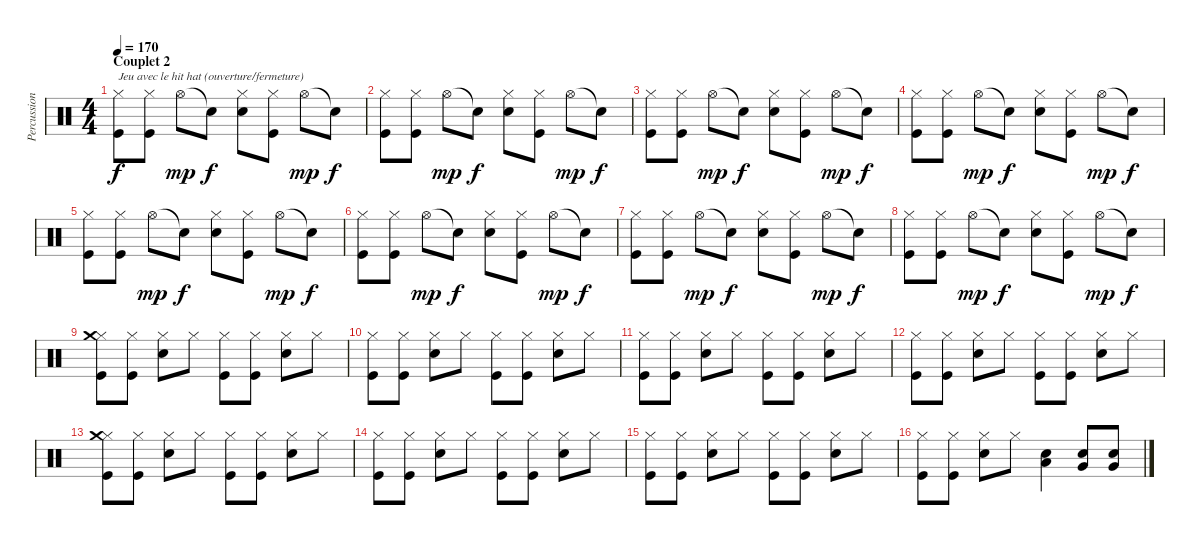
\track ("Percussions" "Percussion") {instrument percussion}
\staff {score}
\articulation defaults
\ts (4 4)
\section ("" "Couplet 2")
\tempo 170
\clef neutral
\ks c
("Hi-Hat (closed)" "Kick (hit)").8{txt "Jeu avec le hit hat (ouverture/fermeture)" dy f} ("Hi-Hat (closed)" "Kick (hit)").8 "Hi-Hat (open)".8{dy mp} "Snare (hit)"{t}.8{dy f} ("Hi-Hat (closed)" "Electric Snare (hit)").8 ("Hi-Hat (closed)" "Kick (hit)").8 "Hi-Hat (open)".8{dy mp} "Snare (hit)"{t}.8{dy f} |
("Hi-Hat (closed)" "Kick (hit)").8 ("Hi-Hat (closed)" "Kick (hit)").8 "Hi-Hat (open)".8{dy mp} "Snare (hit)"{t}.8{dy f} ("Hi-Hat (closed)" "Electric Snare (hit)").8 ("Hi-Hat (closed)" "Kick (hit)").8 "Hi-Hat (open)".8{dy mp} "Snare (hit)"{t}.8{dy f} |
("Hi-Hat (closed)" "Kick (hit)").8 ("Hi-Hat (closed)" "Kick (hit)").8 "Hi-Hat (open)".8{dy mp} "Snare (hit)"{t}.8{dy f} ("Hi-Hat (closed)" "Electric Snare (hit)").8 ("Hi-Hat (closed)" "Kick (hit)").8 "Hi-Hat (open)".8{dy mp} "Snare (hit)"{t}.8{dy f} |
("Hi-Hat (closed)" "Kick (hit)").8 ("Hi-Hat (closed)" "Kick (hit)").8 "Hi-Hat (open)".8{dy mp} "Snare (hit)"{t}.8{dy f} ("Hi-Hat (closed)" "Electric Snare (hit)").8 ("Hi-Hat (closed)" "Kick (hit)").8 "Hi-Hat (open)".8{dy mp} "Snare (hit)"{t}.8{dy f} |
("Hi-Hat (closed)" "Kick (hit)").8 ("Hi-Hat (closed)" "Kick (hit)").8 "Hi-Hat (open)".8{dy mp} "Snare (hit)"{t}.8{dy f} ("Hi-Hat (closed)" "Electric Snare (hit)").8 ("Hi-Hat (closed)" "Kick (hit)").8 "Hi-Hat (open)".8{dy mp} "Snare (hit)"{t}.8{dy f} |
("Hi-Hat (closed)" "Kick (hit)").8 ("Hi-Hat (closed)" "Kick (hit)").8 "Hi-Hat (open)".8{dy mp} "Snare (hit)"{t}.8{dy f} ("Hi-Hat (closed)" "Electric Snare (hit)").8 ("Hi-Hat (closed)" "Kick (hit)").8 "Hi-Hat (open)".8{dy mp} "Snare (hit)"{t}.8{dy f} |
("Hi-Hat (closed)" "Kick (hit)").8 ("Hi-Hat (closed)" "Kick (hit)").8 "Hi-Hat (open)".8{dy mp} "Snare (hit)"{t}.8{dy f} ("Hi-Hat (closed)" "Electric Snare (hit)").8 ("Hi-Hat (closed)" "Kick (hit)").8 "Hi-Hat (open)".8{dy mp} "Snare (hit)"{t}.8{dy f} |
("Hi-Hat (closed)" "Kick (hit)").8 ("Hi-Hat (closed)" "Kick (hit)").8 "Hi-Hat (open)".8{dy mp} "Snare (hit)"{t}.8{dy f} ("Hi-Hat (closed)" "Electric Snare (hit)").8 ("Hi-Hat (closed)" "Kick (hit)").8 "Hi-Hat (open)".8{dy mp} "Snare (hit)"{t}.8{dy f} |
("Hi-Hat (closed)" "Crash medium (hit)" "Kick (hit)").8 ("Hi-Hat (closed)" "Kick (hit)").8 ("Hi-Hat (closed)" "Electric Snare (hit)").8 "Hi-Hat (closed)".8 ("Hi-Hat (closed)" "Kick (hit)").8 ("Hi-Hat (closed)" "Kick (hit)").8 ("Hi-Hat (closed)" "Electric Snare (hit)").8 "Hi-Hat (closed)".8 |
("Hi-Hat (closed)" "Kick (hit)").8 ("Hi-Hat (closed)" "Kick (hit)").8 ("Hi-Hat (closed)" "Electric Snare (hit)").8 "Hi-Hat (closed)".8 ("Hi-Hat (closed)" "Kick (hit)").8 ("Hi-Hat (closed)" "Kick (hit)").8 ("Hi-Hat (closed)" "Electric Snare (hit)").8 "Hi-Hat (closed)".8 |
("Hi-Hat (closed)" "Kick (hit)").8 ("Hi-Hat (closed)" "Kick (hit)").8 ("Hi-Hat (closed)" "Electric Snare (hit)").8 "Hi-Hat (closed)".8 ("Hi-Hat (closed)" "Kick (hit)").8 ("Hi-Hat (closed)" "Kick (hit)").8 ("Hi-Hat (closed)" "Electric Snare (hit)").8 "Hi-Hat (closed)".8 |
("Hi-Hat (closed)" "Kick (hit)").8 ("Hi-Hat (closed)" "Kick (hit)").8 ("Hi-Hat (closed)" "Electric Snare (hit)").8 "Hi-Hat (closed)".8 ("Hi-Hat (closed)" "Kick (hit)").8 ("Hi-Hat (closed)" "Kick (hit)").8 ("Hi-Hat (closed)" "Electric Snare (hit)").8 "Hi-Hat (closed)".8 |
("Hi-Hat (closed)" "Crash medium (hit)" "Kick (hit)").8 ("Hi-Hat (closed)" "Kick (hit)").8 ("Hi-Hat (closed)" "Electric Snare (hit)").8 "Hi-Hat (closed)".8 ("Hi-Hat (closed)" "Kick (hit)").8 ("Hi-Hat (closed)" "Kick (hit)").8 ("Hi-Hat (closed)" "Electric Snare (hit)").8 "Hi-Hat (closed)".8 |
("Hi-Hat (closed)" "Kick (hit)").8 ("Hi-Hat (closed)" "Kick (hit)").8 ("Hi-Hat (closed)" "Electric Snare (hit)").8 "Hi-Hat (closed)".8 ("Hi-Hat (closed)" "Kick (hit)").8 ("Hi-Hat (closed)" "Kick (hit)").8 ("Hi-Hat (closed)" "Electric Snare (hit)").8 "Hi-Hat (closed)".8 |
("Hi-Hat (closed)" "Kick (hit)").8 ("Hi-Hat (closed)" "Kick (hit)").8 ("Hi-Hat (closed)" "Electric Snare (hit)").8 "Hi-Hat (closed)".8 ("Hi-Hat (closed)" "Kick (hit)").8 ("Hi-Hat (closed)" "Kick (hit)").8 ("Hi-Hat (closed)" "Electric Snare (hit)").8 "Hi-Hat (closed)".8 |
("Hi-Hat (closed)" "Kick (hit)").8 ("Hi-Hat (closed)" "Kick (hit)").8 ("Hi-Hat (closed)" "Electric Snare (hit)").8 "Hi-Hat (closed)".8 ("Low Floor Tom (hit)" "Electric Snare (hit)").4 ("Very Low Tom (hit)" "Electric Snare (hit)").8 ("Very Low Tom (hit)" "Electric Snare (hit)").8
